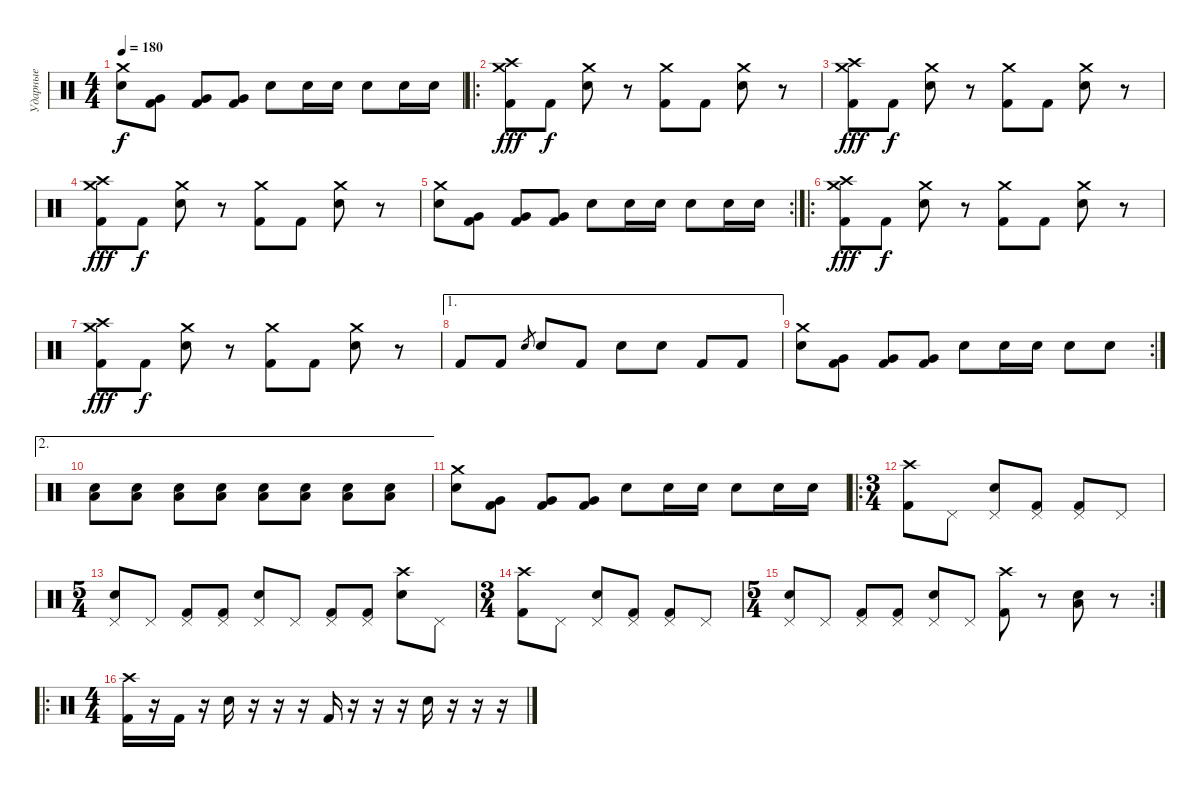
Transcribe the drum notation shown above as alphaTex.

\track ("Ударные" "Ударные") {instrument percussion}
\staff {score}
\articulation defaults
\ts (4 4)
\tempo 180
\clef neutral
\ks c
("Crash medium (hit)" "Electric Snare (hit)").8{dy f} ("Very Low Tom (hit)" "Kick (hit) 2").8 ("Very Low Tom (hit)" "Kick (hit) 2").8 ("Very Low Tom (hit)" "Kick (hit) 2").8 "Electric Snare (hit)".8 "Electric Snare (hit)".16 "Electric Snare (hit)".16 "Electric Snare (hit)".8 "Electric Snare (hit)".16 "Electric Snare (hit)".16 |
\ro
("Crash high (hit)" "Crash medium (hit)" "Kick (hit) 2").8{dy fff} "Kick (hit) 2".8{dy f} ("Crash medium (hit)" "Electric Snare (hit)").8 r.8 ("Crash medium (hit)" "Kick (hit) 2").8 "Kick (hit) 2".8 ("Crash medium (hit)" "Electric Snare (hit)").8 r.8 |
("Crash high (hit)" "Crash medium (hit)" "Kick (hit) 2").8{dy fff} "Kick (hit) 2".8{dy f} ("Crash medium (hit)" "Electric Snare (hit)").8 r.8 ("Crash medium (hit)" "Kick (hit) 2").8 "Kick (hit) 2".8 ("Crash medium (hit)" "Electric Snare (hit)").8 r.8 |
("Crash high (hit)" "Crash medium (hit)" "Kick (hit) 2").8{dy fff} "Kick (hit) 2".8{dy f} ("Crash medium (hit)" "Electric Snare (hit)").8 r.8 ("Crash medium (hit)" "Kick (hit) 2").8 "Kick (hit) 2".8 ("Crash medium (hit)" "Electric Snare (hit)").8 r.8 |
\rc 2
("Crash medium (hit)" "Electric Snare (hit)").8 ("Very Low Tom (hit)" "Kick (hit) 2").8 ("Very Low Tom (hit)" "Kick (hit) 2").8 ("Very Low Tom (hit)" "Kick (hit) 2").8 "Electric Snare (hit)".8 "Electric Snare (hit)".16 "Electric Snare (hit)".16 "Electric Snare (hit)".8 "Electric Snare (hit)".16 "Electric Snare (hit)".16 |
\ro
("Crash high (hit)" "Crash medium (hit)" "Kick (hit) 2").8{dy fff} "Kick (hit) 2".8{dy f} ("Crash medium (hit)" "Electric Snare (hit)").8 r.8 ("Crash medium (hit)" "Kick (hit) 2").8 "Kick (hit) 2".8 ("Crash medium (hit)" "Electric Snare (hit)").8 r.8 |
("Crash high (hit)" "Crash medium (hit)" "Kick (hit) 2").8{dy fff} "Kick (hit) 2".8{dy f} ("Crash medium (hit)" "Electric Snare (hit)").8 r.8 ("Crash medium (hit)" "Kick (hit) 2").8 "Kick (hit) 2".8 ("Crash medium (hit)" "Electric Snare (hit)").8 r.8 |
\ae 1 "Kick (hit) 2".8 "Kick (hit) 2".8 "Electric Snare (hit)".8{gr} "Electric Snare (hit)".8 "Kick (hit) 2".8 "Electric Snare (hit)".8 "Electric Snare (hit)".8 "Kick (hit) 2".8 "Kick (hit) 2".8
|
\rc 2
("Crash medium (hit)" "Electric Snare (hit)").8 ("Very Low Tom (hit)" "Kick (hit) 2").8 ("Very Low Tom (hit)" "Kick (hit) 2").8 ("Very Low Tom (hit)" "Kick (hit) 2").8 "Electric Snare (hit)".8 "Electric Snare (hit)".16 "Electric Snare (hit)".16 "Electric Snare (hit)".8 "Electric Snare (hit)".8 |
\ae 2
("Electric Snare (hit)" "Low Tom (hit)").8 ("Electric Snare (hit)" "Low Tom (hit)").8 ("Electric Snare (hit)" "Low Tom (hit)").8 ("Electric Snare (hit)" "Low Tom (hit)").8 ("Electric Snare (hit)" "Low Tom (hit)").8 ("Electric Snare (hit)" "Low Tom (hit)").8 ("Electric Snare (hit)" "Low Tom (hit)").8 ("Electric Snare (hit)" "Low Tom (hit)").8 |
("Crash medium (hit)" "Electric Snare (hit)").8 ("Very Low Tom (hit)" "Kick (hit) 2").8 ("Very Low Tom (hit)" "Kick (hit) 2").8 ("Very Low Tom (hit)" "Kick (hit) 2").8 "Electric Snare (hit)".8 "Electric Snare (hit)".16 "Electric Snare (hit)".16 "Electric Snare (hit)".8 "Electric Snare (hit)".16 "Electric Snare (hit)".16 |
\ro
\ts (3 4)
("Crash high (hit)" "Kick (hit) 2").8 "Pedal Hi-Hat (hit)".8 ("Pedal Hi-Hat (hit)" "Electric Snare (hit)").8 ("Pedal Hi-Hat (hit)" "Kick (hit) 2").8 ("Pedal Hi-Hat (hit)" "Kick (hit) 2").8 "Pedal Hi-Hat (hit)".8 |
\ts (5 4)
("Pedal Hi-Hat (hit)" "Electric Snare (hit)").8 "Pedal Hi-Hat (hit)".8 ("Pedal Hi-Hat (hit)" "Kick (hit) 2").8 ("Pedal Hi-Hat (hit)" "Kick (hit) 2").8 ("Pedal Hi-Hat (hit)" "Electric Snare (hit)").8 "Pedal Hi-Hat (hit)".8 ("Pedal Hi-Hat (hit)" "Kick (hit) 2").8 ("Pedal Hi-Hat (hit)" "Kick (hit) 2").8 ("Crash high (hit)" "Electric Snare (hit)").8 "Pedal Hi-Hat (hit)".8 |
\ts (3 4)
("Crash high (hit)" "Kick (hit) 2").8 "Pedal Hi-Hat (hit)".8 ("Pedal Hi-Hat (hit)" "Electric Snare (hit)").8 ("Pedal Hi-Hat (hit)" "Kick (hit) 2").8 ("Pedal Hi-Hat (hit)" "Kick (hit) 2").8 "Pedal Hi-Hat (hit)".8 |
\rc 2
\ts (5 4)
("Pedal Hi-Hat (hit)" "Electric Snare (hit)").8 "Pedal Hi-Hat (hit)".8 ("Pedal Hi-Hat (hit)" "Kick (hit) 2").8 ("Pedal Hi-Hat (hit)" "Kick (hit) 2").8 ("Pedal Hi-Hat (hit)" "Electric Snare (hit)").8 "Pedal Hi-Hat (hit)".8 ("Crash high (hit)" "Kick (hit) 2").8 r.8 ("Electric Snare (hit)" "Low Tom (hit)").8 r.8 |
\ro
\ts (4 4)
("Crash high (hit)" "Kick (hit) 2").16 r.16 "Kick (hit) 2".16 r.16 "Electric Snare (hit)".16 r.16 r.16 r.16 "Kick (hit) 2".16 r.16 r.16 r.16 "Electric Snare (hit)".16 r.16 r.16 r.16
